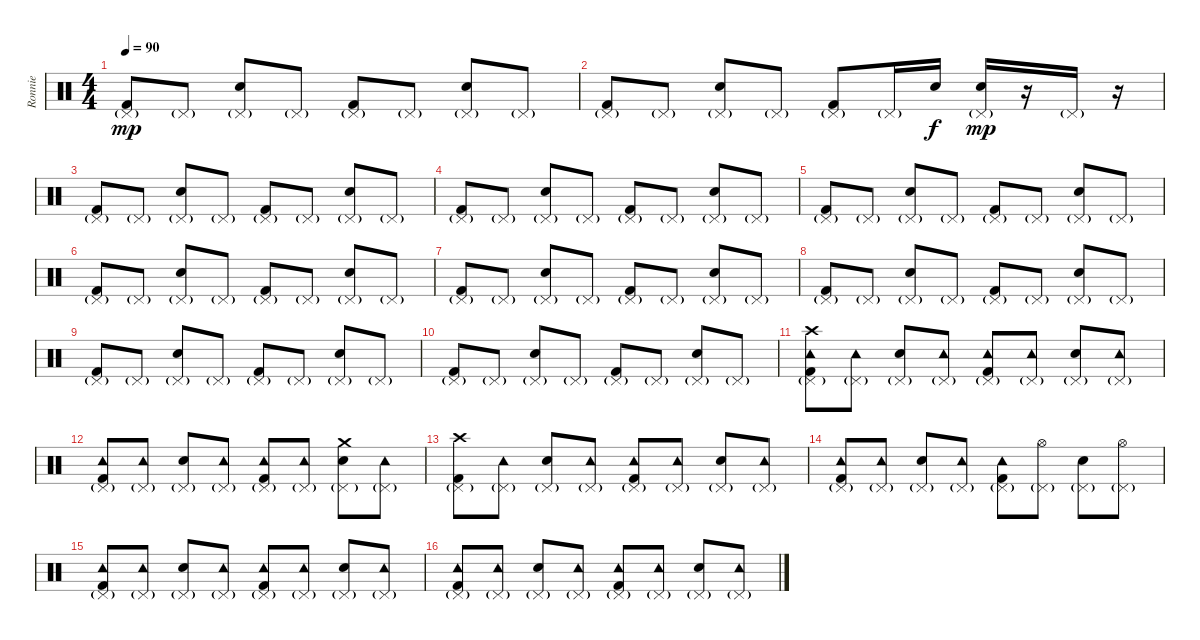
\track ("Ronnie" "Ronnie") {instrument percussion}
\staff {score}
\articulation defaults
\ts (4 4)
\tempo 90
\clef neutral
\ks c
("Pedal Hi-Hat (hit)"{g} "Kick (hit) 2").8{dy mp} "Pedal Hi-Hat (hit)"{g}.8 ("Pedal Hi-Hat (hit)"{g} "Electric Snare (hit)").8 "Pedal Hi-Hat (hit)"{g}.8 ("Pedal Hi-Hat (hit)"{g} "Kick (hit) 2").8 "Pedal Hi-Hat (hit)"{g}.8 ("Pedal Hi-Hat (hit)"{g} "Electric Snare (hit)").8 "Pedal Hi-Hat (hit)"{g}.8 |
("Pedal Hi-Hat (hit)"{g} "Kick (hit) 2").8 "Pedal Hi-Hat (hit)"{g}.8 ("Pedal Hi-Hat (hit)"{g} "Electric Snare (hit)").8 "Pedal Hi-Hat (hit)"{g}.8 ("Pedal Hi-Hat (hit)"{g} "Kick (hit) 2").8 "Pedal Hi-Hat (hit)"{g}.16 "Electric Snare (hit)".16{dy f} ("Pedal Hi-Hat (hit)"{g} "Electric Snare (hit)").16{dy mp} r.16 "Pedal Hi-Hat (hit)"{g}.16 r.16 |
("Pedal Hi-Hat (hit)"{g} "Kick (hit) 2").8 "Pedal Hi-Hat (hit)"{g}.8 ("Pedal Hi-Hat (hit)"{g} "Electric Snare (hit)").8 "Pedal Hi-Hat (hit)"{g}.8 ("Pedal Hi-Hat (hit)"{g} "Kick (hit) 2").8 "Pedal Hi-Hat (hit)"{g}.8 ("Pedal Hi-Hat (hit)"{g} "Electric Snare (hit)").8 "Pedal Hi-Hat (hit)"{g}.8 |
("Pedal Hi-Hat (hit)"{g} "Kick (hit) 2").8 "Pedal Hi-Hat (hit)"{g}.8 ("Pedal Hi-Hat (hit)"{g} "Electric Snare (hit)").8 "Pedal Hi-Hat (hit)"{g}.8 ("Pedal Hi-Hat (hit)"{g} "Kick (hit) 2").8 "Pedal Hi-Hat (hit)"{g}.8 ("Pedal Hi-Hat (hit)"{g} "Electric Snare (hit)").8 "Pedal Hi-Hat (hit)"{g}.8 |
("Pedal Hi-Hat (hit)"{g} "Kick (hit) 2").8 "Pedal Hi-Hat (hit)"{g}.8 ("Pedal Hi-Hat (hit)"{g} "Electric Snare (hit)").8 "Pedal Hi-Hat (hit)"{g}.8 ("Pedal Hi-Hat (hit)"{g} "Kick (hit) 2").8 "Pedal Hi-Hat (hit)"{g}.8 ("Pedal Hi-Hat (hit)"{g} "Electric Snare (hit)").8 "Pedal Hi-Hat (hit)"{g}.8 |
("Pedal Hi-Hat (hit)"{g} "Kick (hit) 2").8 "Pedal Hi-Hat (hit)"{g}.8 ("Pedal Hi-Hat (hit)"{g} "Electric Snare (hit)").8 "Pedal Hi-Hat (hit)"{g}.8 ("Pedal Hi-Hat (hit)"{g} "Kick (hit) 2").8 "Pedal Hi-Hat (hit)"{g}.8 ("Pedal Hi-Hat (hit)"{g} "Electric Snare (hit)").8 "Pedal Hi-Hat (hit)"{g}.8 |
("Pedal Hi-Hat (hit)"{g} "Kick (hit) 2").8 "Pedal Hi-Hat (hit)"{g}.8 ("Pedal Hi-Hat (hit)"{g} "Electric Snare (hit)").8 "Pedal Hi-Hat (hit)"{g}.8 ("Pedal Hi-Hat (hit)"{g} "Kick (hit) 2").8 "Pedal Hi-Hat (hit)"{g}.8 ("Pedal Hi-Hat (hit)"{g} "Electric Snare (hit)").8 "Pedal Hi-Hat (hit)"{g}.8 |
("Pedal Hi-Hat (hit)"{g} "Kick (hit) 2").8 "Pedal Hi-Hat (hit)"{g}.8 ("Pedal Hi-Hat (hit)"{g} "Electric Snare (hit)").8 "Pedal Hi-Hat (hit)"{g}.8 ("Pedal Hi-Hat (hit)"{g} "Kick (hit) 2").8 "Pedal Hi-Hat (hit)"{g}.8 ("Pedal Hi-Hat (hit)"{g} "Electric Snare (hit)").8 "Pedal Hi-Hat (hit)"{g}.8 |
("Pedal Hi-Hat (hit)"{g} "Kick (hit) 2").8 "Pedal Hi-Hat (hit)"{g}.8 ("Pedal Hi-Hat (hit)"{g} "Electric Snare (hit)").8 "Pedal Hi-Hat (hit)"{g}.8 ("Pedal Hi-Hat (hit)"{g} "Kick (hit) 2").8 "Pedal Hi-Hat (hit)"{g}.8 ("Pedal Hi-Hat (hit)"{g} "Electric Snare (hit)").8 "Pedal Hi-Hat (hit)"{g}.8 |
("Pedal Hi-Hat (hit)"{g} "Kick (hit) 2").8 "Pedal Hi-Hat (hit)"{g}.8 ("Pedal Hi-Hat (hit)"{g} "Electric Snare (hit)").8 "Pedal Hi-Hat (hit)"{g}.8 ("Pedal Hi-Hat (hit)"{g} "Kick (hit) 2").8 "Pedal Hi-Hat (hit)"{g}.8 ("Pedal Hi-Hat (hit)"{g} "Electric Snare (hit)").8 "Pedal Hi-Hat (hit)"{g}.8 |
("Pedal Hi-Hat (hit)"{g} "Tambourine (hit)" "Crash high (hit)" "Kick (hit) 2").8 ("Pedal Hi-Hat (hit)"{g} "Tambourine (hit)").8 ("Pedal Hi-Hat (hit)"{g} "Electric Snare (hit)").8 ("Pedal Hi-Hat (hit)"{g} "Tambourine (hit)").8 ("Pedal Hi-Hat (hit)"{g} "Tambourine (hit)" "Kick (hit) 2").8 ("Pedal Hi-Hat (hit)"{g} "Tambourine (hit)").8 ("Pedal Hi-Hat (hit)"{g} "Electric Snare (hit)").8 ("Pedal Hi-Hat (hit)"{g} "Tambourine (hit)").8 |
("Pedal Hi-Hat (hit)"{g} "Tambourine (hit)" "Kick (hit) 2").8 ("Pedal Hi-Hat (hit)"{g} "Tambourine (hit)").8 ("Pedal Hi-Hat (hit)"{g} "Electric Snare (hit)").8 ("Pedal Hi-Hat (hit)"{g} "Tambourine (hit)").8 ("Pedal Hi-Hat (hit)"{g} "Tambourine (hit)" "Kick (hit) 2").8 ("Pedal Hi-Hat (hit)"{g} "Tambourine (hit)").8 ("Pedal Hi-Hat (hit)"{g} "Electric Snare (hit)" "Crash medium (hit)").8 ("Pedal Hi-Hat (hit)"{g} "Tambourine (hit)").8 |
("Pedal Hi-Hat (hit)"{g} "Crash high (hit)" "Kick (hit) 2").8 ("Pedal Hi-Hat (hit)"{g} "Tambourine (hit)").8 ("Pedal Hi-Hat (hit)"{g} "Electric Snare (hit)").8 ("Pedal Hi-Hat (hit)"{g} "Tambourine (hit)").8 ("Pedal Hi-Hat (hit)"{g} "Tambourine (hit)" "Kick (hit) 2").8 ("Pedal Hi-Hat (hit)"{g} "Tambourine (hit)").8 ("Pedal Hi-Hat (hit)"{g} "Electric Snare (hit)").8 ("Pedal Hi-Hat (hit)"{g} "Tambourine (hit)").8 |
("Pedal Hi-Hat (hit)"{g} "Tambourine (hit)" "Kick (hit) 2").8 ("Pedal Hi-Hat (hit)"{g} "Tambourine (hit)").8 ("Pedal Hi-Hat (hit)"{g} "Electric Snare (hit)").8 ("Pedal Hi-Hat (hit)"{g} "Tambourine (hit)").8 ("Pedal Hi-Hat (hit)"{g} "Tambourine (hit)" "Kick (hit) 2").8 ("Pedal Hi-Hat (hit)"{g} "Hi-Hat (open)").8 ("Pedal Hi-Hat (hit)"{g} "Electric Snare (hit)").8 ("Pedal Hi-Hat (hit)"{g} "Hi-Hat (open)").8 |
("Pedal Hi-Hat (hit)"{g} "Tambourine (hit)" "Kick (hit) 2").8 ("Pedal Hi-Hat (hit)"{g} "Tambourine (hit)").8 ("Pedal Hi-Hat (hit)"{g} "Electric Snare (hit)").8 ("Pedal Hi-Hat (hit)"{g} "Tambourine (hit)").8 ("Pedal Hi-Hat (hit)"{g} "Tambourine (hit)" "Kick (hit) 2").8 ("Pedal Hi-Hat (hit)"{g} "Tambourine (hit)").8 ("Pedal Hi-Hat (hit)"{g} "Electric Snare (hit)").8 ("Pedal Hi-Hat (hit)"{g} "Tambourine (hit)").8 |
("Pedal Hi-Hat (hit)"{g} "Tambourine (hit)" "Kick (hit) 2").8 ("Pedal Hi-Hat (hit)"{g} "Tambourine (hit)").8 ("Pedal Hi-Hat (hit)"{g} "Electric Snare (hit)").8 ("Pedal Hi-Hat (hit)"{g} "Tambourine (hit)").8 ("Pedal Hi-Hat (hit)"{g} "Tambourine (hit)" "Kick (hit) 2").8 ("Pedal Hi-Hat (hit)"{g} "Tambourine (hit)").8 ("Pedal Hi-Hat (hit)"{g} "Electric Snare (hit)").8 ("Pedal Hi-Hat (hit)"{g} "Tambourine (hit)").8
